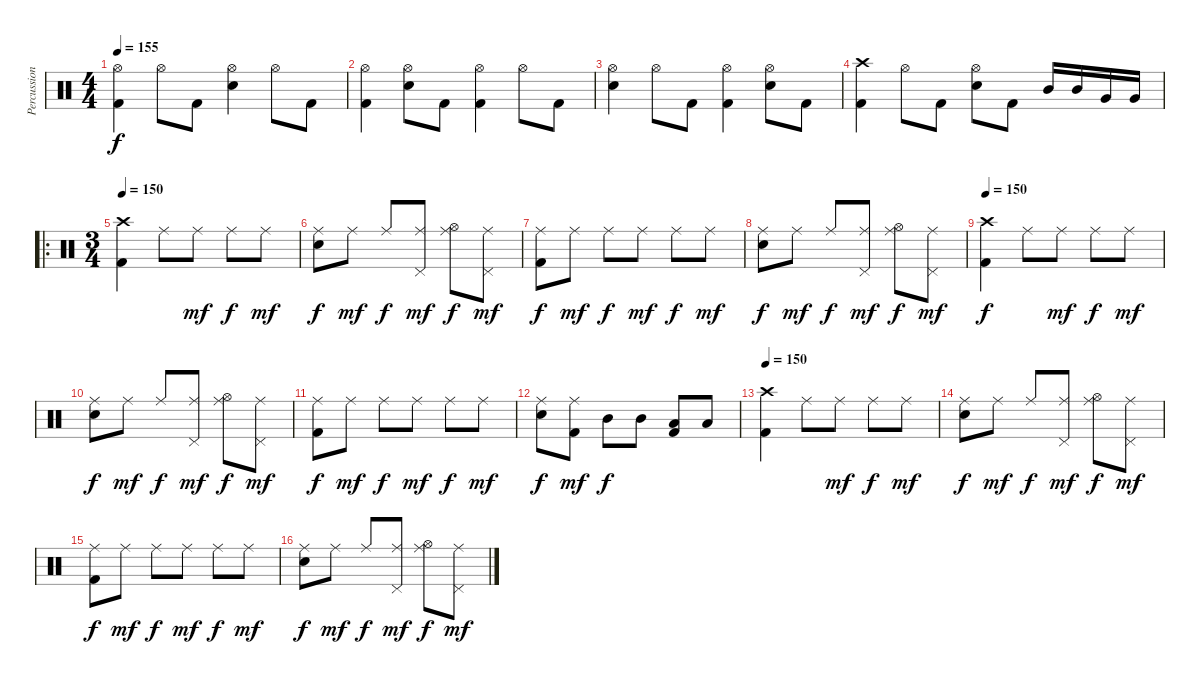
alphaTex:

\track ("Percussion" "Percussion") {instrument percussion}
\staff {score}
\articulation defaults
\ts (4 4)
\tempo 155
\clef neutral
\ks c
("Hi-Hat (open)" "Kick (hit) 2").4{dy f} "Hi-Hat (open)".8 "Kick (hit) 2".8 ("Hi-Hat (open)" "Electric Snare (hit)").4 "Hi-Hat (open)".8 "Kick (hit) 2".8 |
("Hi-Hat (open)" "Kick (hit) 2").4 ("Hi-Hat (open)" "Electric Snare (hit)").8 "Kick (hit) 2".8 ("Hi-Hat (open)" "Kick (hit) 2").4 "Hi-Hat (open)".8 "Kick (hit) 2".8 |
("Hi-Hat (open)" "Electric Snare (hit)").4 "Hi-Hat (open)".8 "Kick (hit) 2".8 ("Hi-Hat (open)" "Kick (hit) 2").4 ("Hi-Hat (open)" "Electric Snare (hit)").8 "Kick (hit) 2".8 |
("Crash high (hit)" "Kick (hit) 2").4 "Hi-Hat (open)".8 "Kick (hit) 2".8 ("Hi-Hat (open)" "Electric Snare (hit)").8 "Kick (hit) 2".8 "Mid Tom (hit)".16 "Mid Tom (hit)".16 "Very Low Tom (hit)".16 "Very Low Tom (hit)".16 |
\ro
\ts (3 4)
\tempo 150
("Crash high (hit)" "Kick (hit) 2").4 "Ride (middle)".8 "Ride (middle)".8{dy mf} "Ride (middle)".8{dy f} "Ride (middle)".8{dy mf} |
("Ride (middle)" "Electric Snare (hit)").8{dy f} "Ride (middle)".8{dy mf} "Ride (middle)".8{dy f} ("Ride (middle)" "Pedal Hi-Hat (hit)").8{dy mf} ("Ride (middle)" "Hi-Hat (open)").8{dy f} ("Ride (middle)" "Pedal Hi-Hat (hit)").8{dy mf} |
("Ride (middle)" "Kick (hit) 2").8{dy f} "Ride (middle)".8{dy mf} "Ride (middle)".8{dy f} "Ride (middle)".8{dy mf} "Ride (middle)".8{dy f} "Ride (middle)".8{dy mf} |
("Ride (middle)" "Electric Snare (hit)").8{dy f} "Ride (middle)".8{dy mf} "Ride (middle)".8{dy f} ("Ride (middle)" "Pedal Hi-Hat (hit)").8{dy mf} ("Ride (middle)" "Hi-Hat (open)").8{dy f} ("Ride (middle)" "Pedal Hi-Hat (hit)").8{dy mf} |
\tempo 150
("Crash high (hit)" "Kick (hit) 2").4{dy f} "Ride (middle)".8 "Ride (middle)".8{dy mf} "Ride (middle)".8{dy f} "Ride (middle)".8{dy mf} |
("Ride (middle)" "Electric Snare (hit)").8{dy f} "Ride (middle)".8{dy mf} "Ride (middle)".8{dy f} ("Ride (middle)" "Pedal Hi-Hat (hit)").8{dy mf} ("Ride (middle)" "Hi-Hat (open)").8{dy f} ("Ride (middle)" "Pedal Hi-Hat (hit)").8{dy mf} |
("Ride (middle)" "Kick (hit) 2").8{dy f} "Ride (middle)".8{dy mf} "Ride (middle)".8{dy f} "Ride (middle)".8{dy mf} "Ride (middle)".8{dy f} "Ride (middle)".8{dy mf} |
("Ride (middle)" "Electric Snare (hit)").8{dy f} ("Ride (middle)" "Kick (hit) 2").8{dy mf} "Mid Tom (hit)".8{dy f} "Mid Tom (hit)".8 ("Low Tom (hit)" "Kick (hit) 2").8 "Low Tom (hit)".8 |
\tempo 150
("Crash high (hit)" "Kick (hit) 2").4 "Ride (middle)".8 "Ride (middle)".8{dy mf} "Ride (middle)".8{dy f} "Ride (middle)".8{dy mf} |
("Ride (middle)" "Electric Snare (hit)").8{dy f} "Ride (middle)".8{dy mf} "Ride (middle)".8{dy f} ("Ride (middle)" "Pedal Hi-Hat (hit)").8{dy mf} ("Ride (middle)" "Hi-Hat (open)").8{dy f} ("Ride (middle)" "Pedal Hi-Hat (hit)").8{dy mf} |
("Ride (middle)" "Kick (hit) 2").8{dy f} "Ride (middle)".8{dy mf} "Ride (middle)".8{dy f} "Ride (middle)".8{dy mf} "Ride (middle)".8{dy f} "Ride (middle)".8{dy mf} |
("Ride (middle)" "Electric Snare (hit)").8{dy f} "Ride (middle)".8{dy mf} "Ride (middle)".8{dy f} ("Ride (middle)" "Pedal Hi-Hat (hit)").8{dy mf} ("Ride (middle)" "Hi-Hat (open)").8{dy f} ("Ride (middle)" "Pedal Hi-Hat (hit)").8{dy mf}
